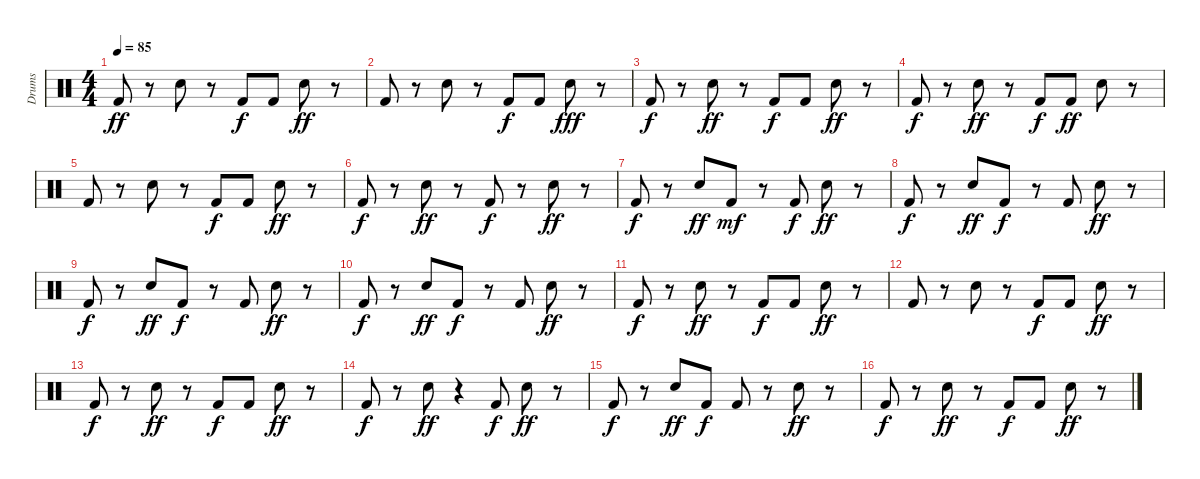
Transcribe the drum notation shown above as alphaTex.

\track ("Drums               " "Drums     ") {instrument percussion}
\staff {score}
\articulation defaults
\ts (4 4)
\tempo 85
\clef neutral
\ks c "Kick (hit) 2".8{dy ff}
r.8 "Electric Snare (hit)".8 r.8 "Kick (hit) 2".8{dy f} "Kick (hit) 2".8 "Electric Snare (hit)".8{dy ff} r.8 |
"Kick (hit) 2".8 r.8 "Electric Snare (hit)".8 r.8 "Kick (hit) 2".8{dy f} "Kick (hit) 2".8 "Electric Snare (hit)".8{dy fff} r.8 |
"Kick (hit) 2".8{dy f} r.8 "Electric Snare (hit)".8{dy ff} r.8 "Kick (hit) 2".8{dy f} "Kick (hit) 2".8 "Electric Snare (hit)".8{dy ff} r.8 |
"Kick (hit) 2".8{dy f} r.8 "Electric Snare (hit)".8{dy ff} r.8 "Kick (hit) 2".8{dy f} "Kick (hit) 2".8{dy ff} "Electric Snare (hit)".8 r.8 |
"Kick (hit) 2".8 r.8 "Electric Snare (hit)".8 r.8 "Kick (hit) 2".8{dy f} "Kick (hit) 2".8 "Electric Snare (hit)".8{dy ff} r.8 |
"Kick (hit) 2".8{dy f} r.8 "Electric Snare (hit)".8{dy ff} r.8 "Kick (hit) 2".8{dy f} r.8 "Electric Snare (hit)".8{dy ff} r.8 |
"Kick (hit) 2".8{dy f} r.8 "Electric Snare (hit)".8{dy ff} "Kick (hit) 2".8{dy mf} r.8 "Kick (hit) 2".8{dy f} "Electric Snare (hit)".8{dy ff} r.8 |
"Kick (hit) 2".8{dy f} r.8 "Electric Snare (hit)".8{dy ff} "Kick (hit) 2".8{dy f} r.8 "Kick (hit) 2".8 "Electric Snare (hit)".8{dy ff} r.8 |
"Kick (hit) 2".8{dy f} r.8 "Electric Snare (hit)".8{dy ff} "Kick (hit) 2".8{dy f} r.8 "Kick (hit) 2".8 "Electric Snare (hit)".8{dy ff} r.8 |
"Kick (hit) 2".8{dy f} r.8 "Electric Snare (hit)".8{dy ff} "Kick (hit) 2".8{dy f} r.8 "Kick (hit) 2".8 "Electric Snare (hit)".8{dy ff} r.8 |
"Kick (hit) 2".8{dy f} r.8 "Electric Snare (hit)".8{dy ff} r.8 "Kick (hit) 2".8{dy f} "Kick (hit) 2".8 "Electric Snare (hit)".8{dy ff} r.8 |
"Kick (hit) 2".8 r.8 "Electric Snare (hit)".8 r.8 "Kick (hit) 2".8{dy f} "Kick (hit) 2".8 "Electric Snare (hit)".8{dy ff} r.8 |
"Kick (hit) 2".8{dy f} r.8 "Electric Snare (hit)".8{dy ff} r.8 "Kick (hit) 2".8{dy f} "Kick (hit) 2".8 "Electric Snare (hit)".8{dy ff} r.8 |
"Kick (hit) 2".8{dy f} r.8 "Electric Snare (hit)".8{dy ff} r.4 "Kick (hit) 2".8{dy f} "Electric Snare (hit)".8{dy ff} r.8 |
"Kick (hit) 2".8{dy f} r.8 "Electric Snare (hit)".8{dy ff} "Kick (hit) 2".8{dy f} "Kick (hit) 2".8 r.8 "Electric Snare (hit)".8{dy ff} r.8 |
"Kick (hit) 2".8{dy f} r.8 "Electric Snare (hit)".8{dy ff} r.8 "Kick (hit) 2".8{dy f} "Kick (hit) 2".8 "Electric Snare (hit)".8{dy ff} r.8
